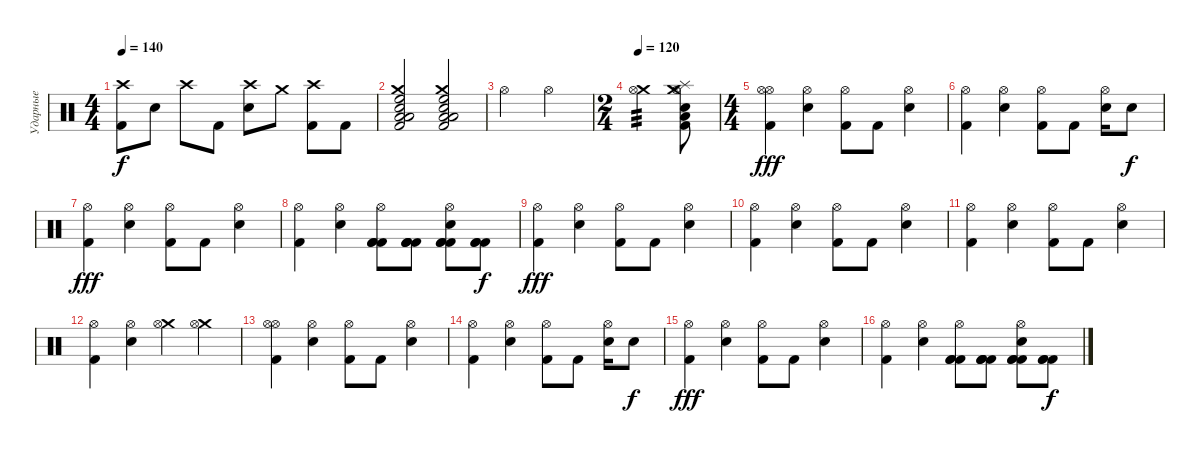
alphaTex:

\track ("Ударные" "Ударные") {instrument percussion}
\staff {score}
\articulation defaults
\ts (4 4)
\tempo 140
\clef neutral
\ks c
("Crash high (hit)" "Kick (hit) 2").8{dy f} "Electric Snare (hit)".8 "Crash high (hit)".8 "Kick (hit) 2".8 ("Crash high (hit)" "Electric Snare (hit)").8 "Crash medium (hit)".8 ("Crash high (hit)" "Kick (hit) 2").8 "Kick (hit) 2".8 |
("Kick (hit) 2" "Snare (hit) 2" "High Floor Tom (hit)" "Low Tom (hit)" "Low Floor Tom (hit)" "Crash medium (hit)").2 ("Kick (hit) 2" "Snare (hit) 2" "High Floor Tom (hit)" "Low Tom (hit)" "Low Floor Tom (hit)" "Crash medium (hit)").2 |
"Hi-Hat (open)".2 "Hi-Hat (open)".2 |
\ts (2 4)
\tempo 120
("Crash medium (hit)" "Hi-Hat (open)").4{tp 3} ("Crash medium (hit)" "Kick (hit) 2" "Snare (hit) 2" "Hi-Hat (open)" "Splash (hit)" "Low Tom (hit)").8 |
\ts (4 4)
("Hi-Hat (open)" "Hi-Hat (open)" "Kick (hit) 2").4{dy fff} ("Hi-Hat (open)" "Snare (hit) 2").4 ("Hi-Hat (open)" "Kick (hit) 2").8 "Kick (hit) 2".8 ("Hi-Hat (open)" "Snare (hit) 2").4 |
("Hi-Hat (open)" "Kick (hit) 2").4 ("Hi-Hat (open)" "Snare (hit) 2").4 ("Hi-Hat (open)" "Kick (hit) 2").8 "Kick (hit) 2".8 ("Hi-Hat (open)" "Snare (hit) 2").16 "Snare (hit) 2".8{dy f} |
("Hi-Hat (open)" "Kick (hit) 2").4{dy fff} ("Hi-Hat (open)" "Snare (hit) 2").4 ("Hi-Hat (open)" "Kick (hit) 2").8 "Kick (hit) 2".8 ("Hi-Hat (open)" "Snare (hit) 2").4 |
("Hi-Hat (open)" "Kick (hit) 2").4 ("Hi-Hat (open)" "Snare (hit) 2").4 ("Kick (hit) 2" "Kick (hit) 2" "Hi-Hat (open)" "Kick (hit) 2").8 ("Kick (hit) 2" "Kick (hit) 2" "Kick (hit) 2" "Kick (hit) 2").8 ("Kick (hit) 2" "Kick (hit) 2" "Kick (hit) 2" "Hi-Hat (open)" "Snare (hit) 2").8 ("Kick (hit) 2" "Kick (hit) 2" "Kick (hit) 2").8{dy f} |
("Hi-Hat (open)" "Kick (hit) 2").4{dy fff} ("Hi-Hat (open)" "Snare (hit) 2").4 ("Hi-Hat (open)" "Kick (hit) 2").8 "Kick (hit) 2".8 ("Hi-Hat (open)" "Snare (hit) 2").4 |
("Hi-Hat (open)" "Kick (hit) 2").4 ("Hi-Hat (open)" "Snare (hit) 2").4 ("Hi-Hat (open)" "Kick (hit) 2").8 "Kick (hit) 2".8 ("Hi-Hat (open)" "Snare (hit) 2").4 |
("Hi-Hat (open)" "Kick (hit) 2").4 ("Hi-Hat (open)" "Snare (hit) 2").4 ("Hi-Hat (open)" "Kick (hit) 2").8 "Kick (hit) 2".8 ("Hi-Hat (open)" "Snare (hit) 2").4 |
("Hi-Hat (open)" "Kick (hit) 2").4 ("Hi-Hat (open)" "Snare (hit) 2").4 ("Crash medium (hit)" "Hi-Hat (open)").4 ("Crash medium (hit)" "Hi-Hat (open)").4 |
("Hi-Hat (open)" "Hi-Hat (open)" "Kick (hit) 2").4 ("Hi-Hat (open)" "Snare (hit) 2").4 ("Hi-Hat (open)" "Kick (hit) 2").8 "Kick (hit) 2".8 ("Hi-Hat (open)" "Snare (hit) 2").4 |
("Hi-Hat (open)" "Kick (hit) 2").4 ("Hi-Hat (open)" "Snare (hit) 2").4 ("Hi-Hat (open)" "Kick (hit) 2").8 "Kick (hit) 2".8 ("Hi-Hat (open)" "Snare (hit) 2").16 "Snare (hit) 2".8{dy f} |
("Hi-Hat (open)" "Kick (hit) 2").4{dy fff} ("Hi-Hat (open)" "Snare (hit) 2").4 ("Hi-Hat (open)" "Kick (hit) 2").8 "Kick (hit) 2".8 ("Hi-Hat (open)" "Snare (hit) 2").4 |
("Hi-Hat (open)" "Kick (hit) 2").4 ("Hi-Hat (open)" "Snare (hit) 2").4 ("Kick (hit) 2" "Kick (hit) 2" "Hi-Hat (open)" "Kick (hit) 2").8 ("Kick (hit) 2" "Kick (hit) 2" "Kick (hit) 2" "Kick (hit) 2").8 ("Kick (hit) 2" "Kick (hit) 2" "Kick (hit) 2" "Hi-Hat (open)" "Snare (hit) 2").8 ("Kick (hit) 2" "Kick (hit) 2" "Kick (hit) 2").8{dy f}
